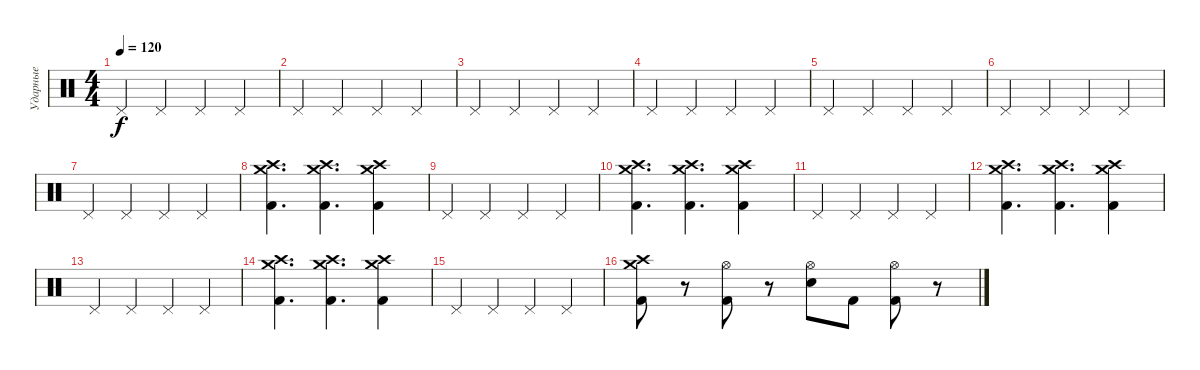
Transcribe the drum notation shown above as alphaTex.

\track ("Ударные" "Ударные") {instrument percussion}
\staff {score}
\articulation defaults
\ts (4 4)
\tempo 120
\clef neutral
\ks c "Pedal Hi-Hat (hit)".4{dy f} "Pedal Hi-Hat (hit)".4 "Pedal Hi-Hat (hit)".4 "Pedal Hi-Hat (hit)".4
|
"Pedal Hi-Hat (hit)".4 "Pedal Hi-Hat (hit)".4 "Pedal Hi-Hat (hit)".4 "Pedal Hi-Hat (hit)".4 |
"Pedal Hi-Hat (hit)".4 "Pedal Hi-Hat (hit)".4 "Pedal Hi-Hat (hit)".4 "Pedal Hi-Hat (hit)".4 |
"Pedal Hi-Hat (hit)".4 "Pedal Hi-Hat (hit)".4 "Pedal Hi-Hat (hit)".4 "Pedal Hi-Hat (hit)".4 |
"Pedal Hi-Hat (hit)".4 "Pedal Hi-Hat (hit)".4 "Pedal Hi-Hat (hit)".4 "Pedal Hi-Hat (hit)".4 |
"Pedal Hi-Hat (hit)".4 "Pedal Hi-Hat (hit)".4 "Pedal Hi-Hat (hit)".4 "Pedal Hi-Hat (hit)".4 |
"Pedal Hi-Hat (hit)".4 "Pedal Hi-Hat (hit)".4 "Pedal Hi-Hat (hit)".4 "Pedal Hi-Hat (hit)".4 |
("Crash medium (hit)" "Crash high (hit)" "Kick (hit) 2").4{d} ("Crash medium (hit)" "Crash high (hit)" "Kick (hit) 2").4{d} ("Crash medium (hit)" "Crash high (hit)" "Kick (hit) 2").4 |
"Pedal Hi-Hat (hit)".4 "Pedal Hi-Hat (hit)".4 "Pedal Hi-Hat (hit)".4 "Pedal Hi-Hat (hit)".4 |
("Crash medium (hit)" "Crash high (hit)" "Kick (hit) 2").4{d} ("Crash medium (hit)" "Crash high (hit)" "Kick (hit) 2").4{d} ("Crash medium (hit)" "Crash high (hit)" "Kick (hit) 2").4 |
"Pedal Hi-Hat (hit)".4 "Pedal Hi-Hat (hit)".4 "Pedal Hi-Hat (hit)".4 "Pedal Hi-Hat (hit)".4 |
("Crash medium (hit)" "Crash high (hit)" "Kick (hit) 2").4{d} ("Crash medium (hit)" "Crash high (hit)" "Kick (hit) 2").4{d} ("Crash medium (hit)" "Crash high (hit)" "Kick (hit) 2").4 |
"Pedal Hi-Hat (hit)".4 "Pedal Hi-Hat (hit)".4 "Pedal Hi-Hat (hit)".4 "Pedal Hi-Hat (hit)".4 |
("Crash medium (hit)" "Crash high (hit)" "Kick (hit) 2").4{d} ("Crash medium (hit)" "Crash high (hit)" "Kick (hit) 2").4{d} ("Crash medium (hit)" "Crash high (hit)" "Kick (hit) 2").4 |
"Pedal Hi-Hat (hit)".4 "Pedal Hi-Hat (hit)".4 "Pedal Hi-Hat (hit)".4 "Pedal Hi-Hat (hit)".4 |
("Crash high (hit)" "Crash medium (hit)" "Kick (hit) 2").8 r.8 ("Hi-Hat (open)" "Kick (hit) 2").8 r.8 ("Hi-Hat (open)" "Electric Snare (hit)").8 "Kick (hit) 2".8 ("Hi-Hat (open)" "Kick (hit) 2").8 r.8
